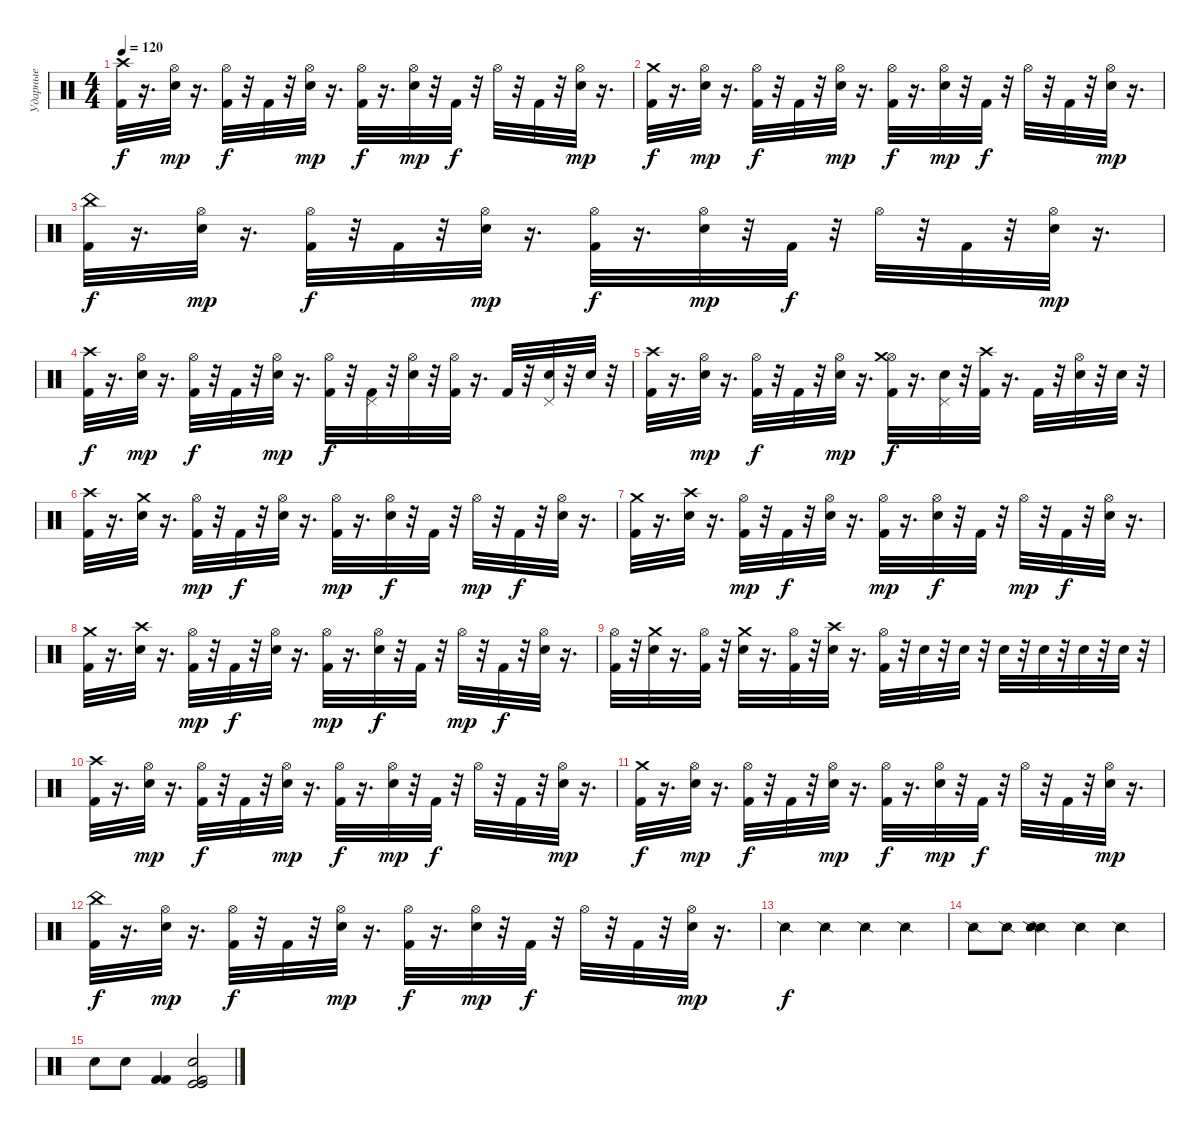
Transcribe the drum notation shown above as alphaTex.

\track ("Ударные" "Ударные") {instrument percussion}
\staff {score}
\articulation defaults
\ts (4 4)
\tempo 120
\clef neutral
\ks c
("Crash high (hit)" "Kick (hit) 2").32{dy f} r.16{d} ("Hi-Hat (open)" "Electric Snare (hit)").32{dy mp} r.16{d} ("Hi-Hat (open)" "Kick (hit) 2").32{dy f} r.32 "Kick (hit) 2".32 r.32 ("Hi-Hat (open)" "Electric Snare (hit)").32{dy mp} r.16{d} ("Hi-Hat (open)" "Kick (hit) 2").32{dy f} r.16{d} ("Hi-Hat (open)" "Electric Snare (hit)").32{dy mp} r.32 "Kick (hit) 2".32{dy f} r.32 "Hi-Hat (open)".32 r.32 "Kick (hit) 2".32 r.32 ("Hi-Hat (open)" "Electric Snare (hit)").32{dy mp} r.16{d} |
("Crash medium (hit)" "Kick (hit) 2").32{dy f} r.16{d} ("Hi-Hat (open)" "Electric Snare (hit)").32{dy mp} r.16{d} ("Hi-Hat (open)" "Kick (hit) 2").32{dy f} r.32 "Kick (hit) 2".32 r.32 ("Hi-Hat (open)" "Electric Snare (hit)").32{dy mp} r.16{d} ("Hi-Hat (open)" "Kick (hit) 2").32{dy f} r.16{d} ("Hi-Hat (open)" "Electric Snare (hit)").32{dy mp} r.32 "Kick (hit) 2".32{dy f} r.32 "Hi-Hat (open)".32 r.32 "Kick (hit) 2".32 r.32 ("Hi-Hat (open)" "Electric Snare (hit)").32{dy mp} r.16{d} |
("China (hit)" "Kick (hit) 2").32{dy f} r.16{d} ("Hi-Hat (open)" "Electric Snare (hit)").32{dy mp} r.16{d} ("Hi-Hat (open)" "Kick (hit) 2").32{dy f} r.32 "Kick (hit) 2".32 r.32 ("Hi-Hat (open)" "Electric Snare (hit)").32{dy mp} r.16{d} ("Hi-Hat (open)" "Kick (hit) 2").32{dy f} r.16{d} ("Hi-Hat (open)" "Electric Snare (hit)").32{dy mp} r.32 "Kick (hit) 2".32{dy f} r.32 "Hi-Hat (open)".32 r.32 "Kick (hit) 2".32 r.32 ("Hi-Hat (open)" "Electric Snare (hit)").32{dy mp} r.16{d} |
("Crash high (hit)" "Kick (hit) 2").32{dy f} r.16{d} ("Hi-Hat (open)" "Electric Snare (hit)").32{dy mp} r.16{d} ("Hi-Hat (open)" "Kick (hit) 2").32{dy f} r.32 "Kick (hit) 2".32 r.32 ("Hi-Hat (open)" "Electric Snare (hit)").32{dy mp} r.16{d} ("Hi-Hat (open)" "Kick (hit) 2").32{dy f} r.32 ("Kick (hit) 2" "Pedal Hi-Hat (hit)").32 r.32 ("Hi-Hat (open)" "Electric Snare (hit)").32 r.32 ("Kick (hit) 2" "Hi-Hat (open)").32 r.16{d} "Kick (hit) 2".32 r.32 ("Pedal Hi-Hat (hit)" "Electric Snare (hit)").32 r.32 "Electric Snare (hit)".32 r.32 |
("Crash high (hit)" "Kick (hit) 2").32 r.16{d} ("Hi-Hat (open)" "Electric Snare (hit)").32{dy mp} r.16{d} ("Hi-Hat (open)" "Kick (hit) 2").32{dy f} r.32 "Kick (hit) 2".32 r.32 ("Hi-Hat (open)" "Electric Snare (hit)").32{dy mp} r.16{d} ("Hi-Hat (open)" "Crash medium (hit)" "Kick (hit) 2").32{dy f} r.16{d} ("Pedal Hi-Hat (hit)" "Electric Snare (hit)").32 r.32 ("Crash high (hit)" "Kick (hit) 2").32 r.16{d} "Kick (hit) 2".32 r.32 ("Hi-Hat (open)" "Electric Snare (hit)").32 r.32 "Electric Snare (hit)".32 r.32 |
("Crash high (hit)" "Kick (hit) 2").32 r.16{d} ("Crash medium (hit)" "Electric Snare (hit)").32 r.16{d} ("Hi-Hat (open)" "Kick (hit) 2").32{dy mp} r.32 "Kick (hit) 2".32{dy f} r.32 ("Hi-Hat (open)" "Electric Snare (hit)").32 r.16{d} ("Hi-Hat (open)" "Kick (hit) 2").32{dy mp} r.16{d} ("Hi-Hat (open)" "Electric Snare (hit)").32{dy f} r.32 "Kick (hit) 2".32 r.32 "Hi-Hat (open)".32{dy mp} r.32 "Kick (hit) 2".32{dy f} r.32 ("Hi-Hat (open)" "Electric Snare (hit)").32 r.16{d} |
("Crash medium (hit)" "Kick (hit) 2").32 r.16{d} ("Electric Snare (hit)" "Crash high (hit)").32 r.16{d} ("Hi-Hat (open)" "Kick (hit) 2").32{dy mp} r.32 "Kick (hit) 2".32{dy f} r.32 ("Hi-Hat (open)" "Electric Snare (hit)").32 r.16{d} ("Hi-Hat (open)" "Kick (hit) 2").32{dy mp} r.16{d} ("Hi-Hat (open)" "Electric Snare (hit)").32{dy f} r.32 "Kick (hit) 2".32 r.32 "Hi-Hat (open)".32{dy mp} r.32 "Kick (hit) 2".32{dy f} r.32 ("Hi-Hat (open)" "Electric Snare (hit)").32 r.16{d} |
("Kick (hit) 2" "Crash medium (hit)").32 r.16{d} ("Electric Snare (hit)" "Crash high (hit)").32 r.16{d} ("Hi-Hat (open)" "Kick (hit) 2").32{dy mp} r.32 "Kick (hit) 2".32{dy f} r.32 ("Electric Snare (hit)" "Hi-Hat (open)").32 r.16{d} ("Hi-Hat (open)" "Kick (hit) 2").32{dy mp} r.16{d} ("Electric Snare (hit)" "Hi-Hat (open)").32{dy f} r.32 "Kick (hit) 2".32 r.32 "Hi-Hat (open)".32{dy mp} r.32 "Kick (hit) 2".32{dy f} r.32 ("Electric Snare (hit)" "Hi-Hat (open)").32 r.16{d} |
("Hi-Hat (open)" "Kick (hit) 2").32 r.32 ("Crash medium (hit)" "Electric Snare (hit)").32 r.16{d} ("Hi-Hat (open)" "Kick (hit) 2").32 r.32 ("Crash medium (hit)" "Electric Snare (hit)").32 r.16{d} ("Hi-Hat (open)" "Kick (hit) 2").32 r.32 ("Crash high (hit)" "Electric Snare (hit)").32 r.16{d} ("Hi-Hat (open)" "Kick (hit) 2").32 r.32 "Electric Snare (hit)".32 r.32 "Electric Snare (hit)".32 r.32 "Electric Snare (hit)".32 r.32 "Electric Snare (hit)".32 r.32 "Electric Snare (hit)".32 r.32 "Electric Snare (hit)".32 r.32 |
("Crash high (hit)" "Kick (hit) 2").32 r.16{d} ("Hi-Hat (open)" "Electric Snare (hit)").32{dy mp} r.16{d} ("Hi-Hat (open)" "Kick (hit) 2").32{dy f} r.32 "Kick (hit) 2".32 r.32 ("Hi-Hat (open)" "Electric Snare (hit)").32{dy mp} r.16{d} ("Hi-Hat (open)" "Kick (hit) 2").32{dy f} r.16{d} ("Hi-Hat (open)" "Electric Snare (hit)").32{dy mp} r.32 "Kick (hit) 2".32{dy f} r.32 "Hi-Hat (open)".32 r.32 "Kick (hit) 2".32 r.32 ("Hi-Hat (open)" "Electric Snare (hit)").32{dy mp} r.16{d} |
("Crash medium (hit)" "Kick (hit) 2").32{dy f} r.16{d} ("Hi-Hat (open)" "Electric Snare (hit)").32{dy mp} r.16{d} ("Hi-Hat (open)" "Kick (hit) 2").32{dy f} r.32 "Kick (hit) 2".32 r.32 ("Hi-Hat (open)" "Electric Snare (hit)").32{dy mp} r.16{d} ("Hi-Hat (open)" "Kick (hit) 2").32{dy f} r.16{d} ("Hi-Hat (open)" "Electric Snare (hit)").32{dy mp} r.32 "Kick (hit) 2".32{dy f} r.32 "Hi-Hat (open)".32 r.32 "Kick (hit) 2".32 r.32 ("Hi-Hat (open)" "Electric Snare (hit)").32{dy mp} r.16{d} |
("China (hit)" "Kick (hit) 2").32{dy f} r.16{d} ("Hi-Hat (open)" "Electric Snare (hit)").32{dy mp} r.16{d} ("Hi-Hat (open)" "Kick (hit) 2").32{dy f} r.32 "Kick (hit) 2".32 r.32 ("Hi-Hat (open)" "Electric Snare (hit)").32{dy mp} r.16{d} ("Hi-Hat (open)" "Kick (hit) 2").32{dy f} r.16{d} ("Hi-Hat (open)" "Electric Snare (hit)").32{dy mp} r.32 "Kick (hit) 2".32{dy f} r.32 "Hi-Hat (open)".32 r.32 "Kick (hit) 2".32 r.32 ("Hi-Hat (open)" "Electric Snare (hit)").32{dy mp} r.16{d} |
"Snare (side stick) 2".4{dy f} "Snare (side stick) 2".4 "Snare (side stick) 2".4 "Snare (side stick) 2".4 |
"Snare (side stick) 2".8 "Snare (side stick) 2".8 ("Snare (side stick) 2" "Snare (side stick) 2").4 "Snare (side stick) 2".4 "Snare (side stick) 2".4 |
"Snare (hit) 2".8 "Snare (hit) 2".8 ("Kick (hit) 2" "Kick (hit) 2").4 ("Kick (hit) 2" "Kick (hit)" "Snare (hit) 2" "Kick (hit)").2
